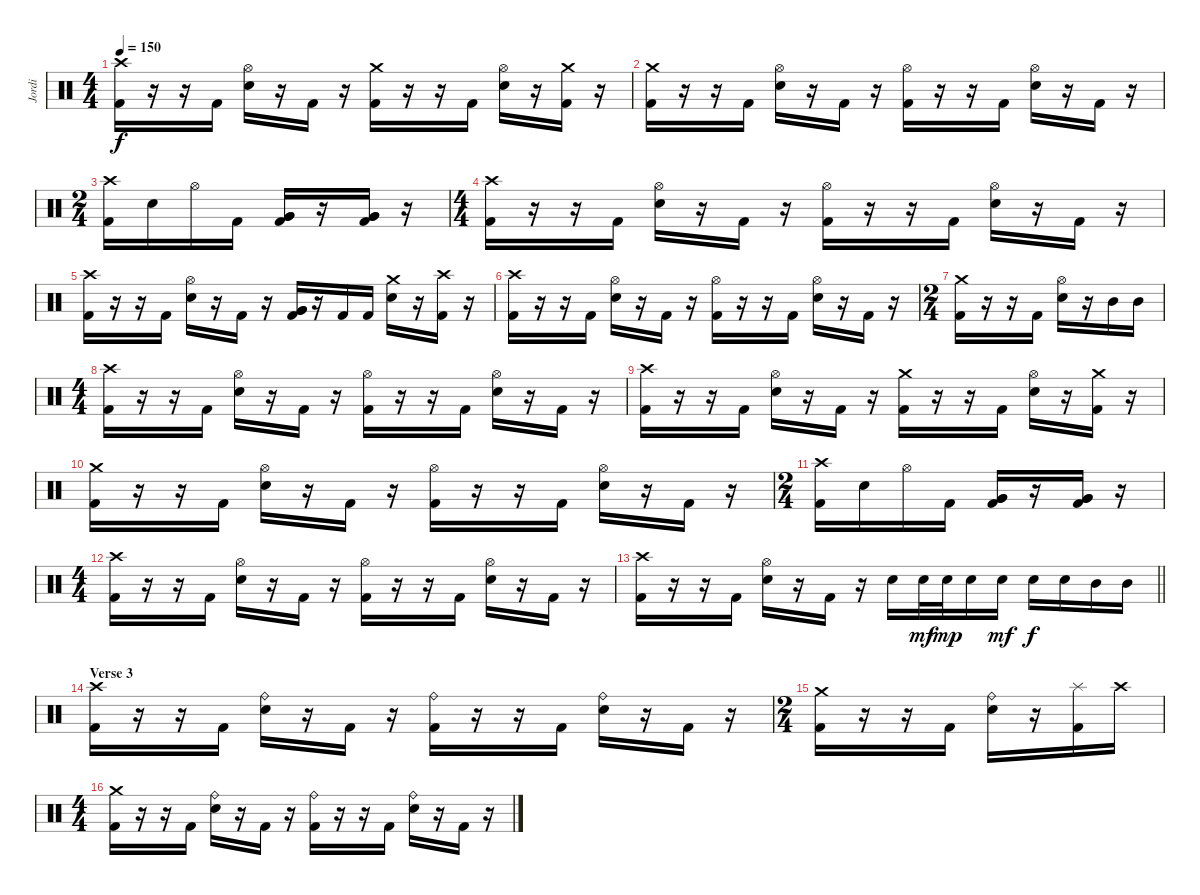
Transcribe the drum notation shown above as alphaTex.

\track ("Jordi" "Jordi") {instrument percussion}
\staff {score}
\articulation defaults
\ts (4 4)
\tempo 150
\clef neutral
\ks c
("Crash high (hit)" "Kick (hit) 2").16{dy f} r.16 r.16 "Kick (hit) 2".16 ("Hi-Hat (open)" "Snare (hit) 2").16 r.16 "Kick (hit) 2".16 r.16 ("Crash medium (hit)" "Kick (hit) 2").16 r.16 r.16 "Kick (hit) 2".16 ("Hi-Hat (open)" "Snare (hit) 2").16 r.16 ("Crash medium (hit)" "Kick (hit) 2").16 r.16 |
("Crash medium (hit)" "Kick (hit) 2").16 r.16 r.16 "Kick (hit) 2".16 ("Hi-Hat (open)" "Snare (hit) 2").16 r.16 "Kick (hit) 2".16 r.16 ("Hi-Hat (open)" "Kick (hit) 2").16 r.16 r.16 "Kick (hit) 2".16 ("Hi-Hat (open)" "Snare (hit) 2").16 r.16 "Kick (hit) 2".16 r.16 |
\ts (2 4)
("Crash high (hit)" "Kick (hit) 2").16 "Snare (hit) 2".16 "Hi-Hat (open)".16 "Kick (hit) 2".16 ("Very Low Tom (hit)" "Very Low Tom (hit)" "Kick (hit) 2").16 r.16 ("Very Low Tom (hit)" "Very Low Tom (hit)" "Kick (hit) 2").16 r.16 |
\ts (4 4)
("Crash high (hit)" "Kick (hit) 2").16 r.16 r.16 "Kick (hit) 2".16 ("Hi-Hat (open)" "Snare (hit) 2").16 r.16 "Kick (hit) 2".16 r.16 ("Hi-Hat (open)" "Kick (hit) 2").16 r.16 r.16 "Kick (hit) 2".16 ("Hi-Hat (open)" "Snare (hit) 2").16 r.16 "Kick (hit) 2".16 r.16 |
("Crash high (hit)" "Kick (hit) 2").16 r.16 r.16 "Kick (hit) 2".16 ("Hi-Hat (open)" "Snare (hit) 2").16 r.16 "Kick (hit) 2".16 r.16 ("Very Low Tom (hit)" "Very Low Tom (hit)" "Kick (hit) 2").16 r.16 "Kick (hit) 2".16 "Kick (hit) 2".16 ("Crash medium (hit)" "Snare (hit) 2").16 r.16 ("Crash high (hit)" "Kick (hit) 2").16 r.16 |
("Crash high (hit)" "Kick (hit) 2").16 r.16 r.16 "Kick (hit) 2".16 ("Hi-Hat (open)" "Snare (hit) 2").16 r.16 "Kick (hit) 2".16 r.16 ("Hi-Hat (open)" "Kick (hit) 2").16 r.16 r.16 "Kick (hit) 2".16 ("Hi-Hat (open)" "Snare (hit) 2").16 r.16 "Kick (hit) 2".16 r.16 |
\ts (2 4)
("Crash medium (hit)" "Kick (hit) 2").16 r.16 r.16 "Kick (hit) 2".16 ("Hi-Hat (open)" "Snare (hit) 2").16 r.16 "Mid Tom (hit)".16 "Mid Tom (hit)".16 |
\ts (4 4)
("Crash high (hit)" "Kick (hit) 2").16 r.16 r.16 "Kick (hit) 2".16 ("Hi-Hat (open)" "Snare (hit) 2").16 r.16 "Kick (hit) 2".16 r.16 ("Hi-Hat (open)" "Kick (hit) 2").16 r.16 r.16 "Kick (hit) 2".16 ("Hi-Hat (open)" "Snare (hit) 2").16 r.16 "Kick (hit) 2".16 r.16 |
("Crash high (hit)" "Kick (hit) 2").16 r.16 r.16 "Kick (hit) 2".16 ("Hi-Hat (open)" "Snare (hit) 2").16 r.16 "Kick (hit) 2".16 r.16 ("Crash medium (hit)" "Kick (hit) 2").16 r.16 r.16 "Kick (hit) 2".16 ("Hi-Hat (open)" "Snare (hit) 2").16 r.16 ("Crash medium (hit)" "Kick (hit) 2").16 r.16 |
("Crash medium (hit)" "Kick (hit) 2").16 r.16 r.16 "Kick (hit) 2".16 ("Hi-Hat (open)" "Snare (hit) 2").16 r.16 "Kick (hit) 2".16 r.16 ("Hi-Hat (open)" "Kick (hit) 2").16 r.16 r.16 "Kick (hit) 2".16 ("Hi-Hat (open)" "Snare (hit) 2").16 r.16 "Kick (hit) 2".16 r.16 |
\ts (2 4)
("Crash high (hit)" "Kick (hit) 2").16 "Snare (hit) 2".16 "Hi-Hat (open)".16 "Kick (hit) 2".16 ("Very Low Tom (hit)" "Very Low Tom (hit)" "Kick (hit) 2").16 r.16 ("Very Low Tom (hit)" "Very Low Tom (hit)" "Kick (hit) 2").16 r.16 |
\ts (4 4)
("Crash high (hit)" "Kick (hit) 2").16 r.16 r.16 "Kick (hit) 2".16 ("Hi-Hat (open)" "Snare (hit) 2").16 r.16 "Kick (hit) 2".16 r.16 ("Hi-Hat (open)" "Kick (hit) 2").16 r.16 r.16 "Kick (hit) 2".16 ("Hi-Hat (open)" "Snare (hit) 2").16 r.16 "Kick (hit) 2".16 r.16 |
\barLineRight lightlight
("Crash high (hit)" "Kick (hit) 2").16 r.16 r.16 "Kick (hit) 2".16 ("Hi-Hat (open)" "Snare (hit) 2").16 r.16 "Kick (hit) 2".16 r.16 "Snare (hit) 2".16 "Snare (hit) 2".32{dy mf} "Snare (hit) 2".32{dy mp} "Snare (hit) 2".16 "Snare (hit) 2".16{dy mf} "Snare (hit) 2".16{dy f} "Snare (hit) 2".16 "Mid Tom (hit)".16 "Mid Tom (hit)".16 |
\section ("" "Verse 3")
("Crash high (hit)" "Kick (hit) 2").16 r.16 r.16 "Kick (hit) 2".16 ("Ride (bell)" "Snare (hit) 2").16 r.16 "Kick (hit) 2".16 r.16 ("Ride (bell)" "Kick (hit) 2").16 r.16 r.16 "Kick (hit) 2".16 ("Ride (bell)" "Snare (hit) 2").16 r.16 "Kick (hit) 2".16 r.16 |
\ts (2 4)
("Crash medium (hit)" "Kick (hit) 2").16 r.16 r.16 "Kick (hit) 2".16 ("Ride (bell)" "Snare (hit) 2").16 r.16 ("Splash (hit)" "Kick (hit) 2").16 "Crash high (hit)".16 |
\ts (4 4)
("Crash medium (hit)" "Kick (hit) 2").16 r.16 r.16 "Kick (hit) 2".16 ("Ride (bell)" "Snare (hit) 2").16 r.16 "Kick (hit) 2".16 r.16 ("Ride (bell)" "Kick (hit) 2").16 r.16 r.16 "Kick (hit) 2".16 ("Ride (bell)" "Snare (hit) 2").16 r.16 "Kick (hit) 2".16 r.16
